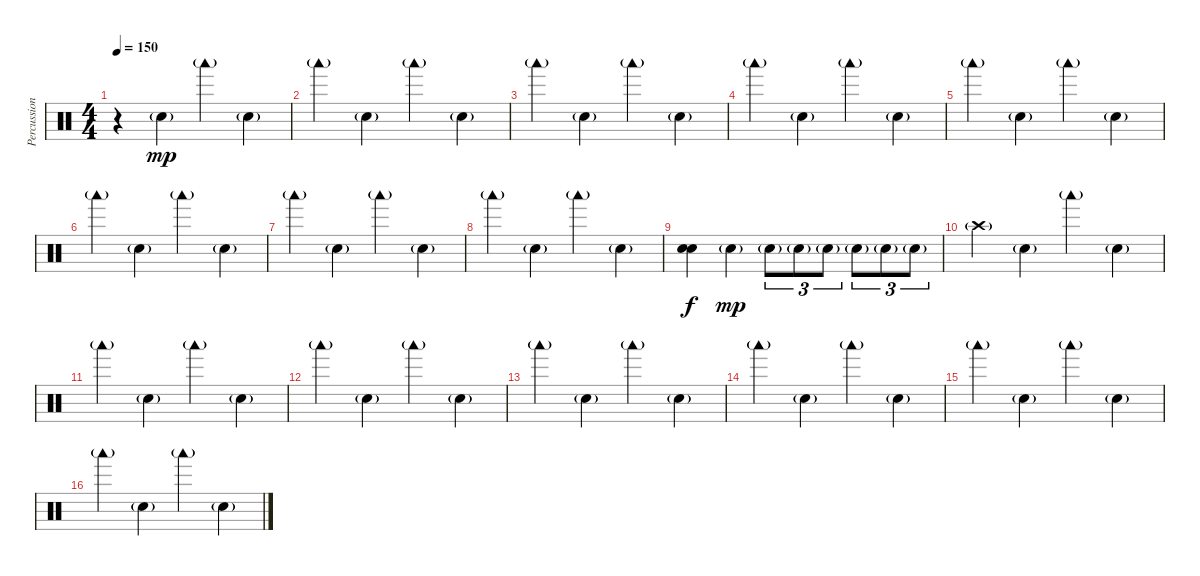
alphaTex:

\track ("Percussion" "Percussion") {instrument percussion}
\staff {score}
\articulation defaults
\ts (4 4)
\tempo 150
\clef neutral
\ks c
r.4{dy f} "Snare (hit) 2"{g}.4{dy mp} "Woodblock low (hit)"{g}.4 "Snare (hit) 2"{g}.4 |
"Woodblock low (hit)"{g}.4 "Snare (hit) 2"{g}.4 "Woodblock low (hit)"{g}.4 "Snare (hit) 2"{g}.4 |
"Woodblock low (hit)"{g}.4 "Snare (hit) 2"{g}.4 "Woodblock low (hit)"{g}.4 "Snare (hit) 2"{g}.4 |
"Woodblock low (hit)"{g}.4 "Snare (hit) 2"{g}.4 "Woodblock low (hit)"{g}.4 "Snare (hit) 2"{g}.4 |
"Woodblock low (hit)"{g}.4 "Snare (hit) 2"{g}.4 "Woodblock low (hit)"{g}.4 "Snare (hit) 2"{g}.4 |
"Woodblock low (hit)"{g}.4 "Snare (hit) 2"{g}.4 "Woodblock low (hit)"{g}.4 "Snare (hit) 2"{g}.4 |
"Woodblock low (hit)"{g}.4 "Snare (hit) 2"{g}.4 "Woodblock low (hit)"{g}.4 "Snare (hit) 2"{g}.4 |
"Woodblock low (hit)"{g}.4 "Snare (hit) 2"{g}.4 "Woodblock low (hit)"{g}.4 "Snare (hit) 2"{g}.4 |
("Snare (hit) 2" "Snare (hit) 2").4{dy f} "Snare (hit) 2"{g}.4{dy mp} "Snare (hit) 2"{g}.8{tu (3 2)} "Snare (hit) 2"{g}.8{tu (3 2)} "Snare (hit) 2"{g}.8{tu (3 2)} "Snare (hit) 2"{g}.8{tu (3 2)} "Snare (hit) 2"{g}.8{tu (3 2)} "Snare (hit) 2"{g}.8{tu (3 2)} |
"Crash high (hit)"{g}.4 "Snare (hit) 2"{g}.4 "Woodblock low (hit)"{g}.4 "Snare (hit) 2"{g}.4 |
"Woodblock low (hit)"{g}.4 "Snare (hit) 2"{g}.4 "Woodblock low (hit)"{g}.4 "Snare (hit) 2"{g}.4 |
"Woodblock low (hit)"{g}.4 "Snare (hit) 2"{g}.4 "Woodblock low (hit)"{g}.4 "Snare (hit) 2"{g}.4 |
"Woodblock low (hit)"{g}.4 "Snare (hit) 2"{g}.4 "Woodblock low (hit)"{g}.4 "Snare (hit) 2"{g}.4 |
"Woodblock low (hit)"{g}.4 "Snare (hit) 2"{g}.4 "Woodblock low (hit)"{g}.4 "Snare (hit) 2"{g}.4 |
"Woodblock low (hit)"{g}.4 "Snare (hit) 2"{g}.4 "Woodblock low (hit)"{g}.4 "Snare (hit) 2"{g}.4 |
"Woodblock low (hit)"{g}.4 "Snare (hit) 2"{g}.4 "Woodblock low (hit)"{g}.4 "Snare (hit) 2"{g}.4
